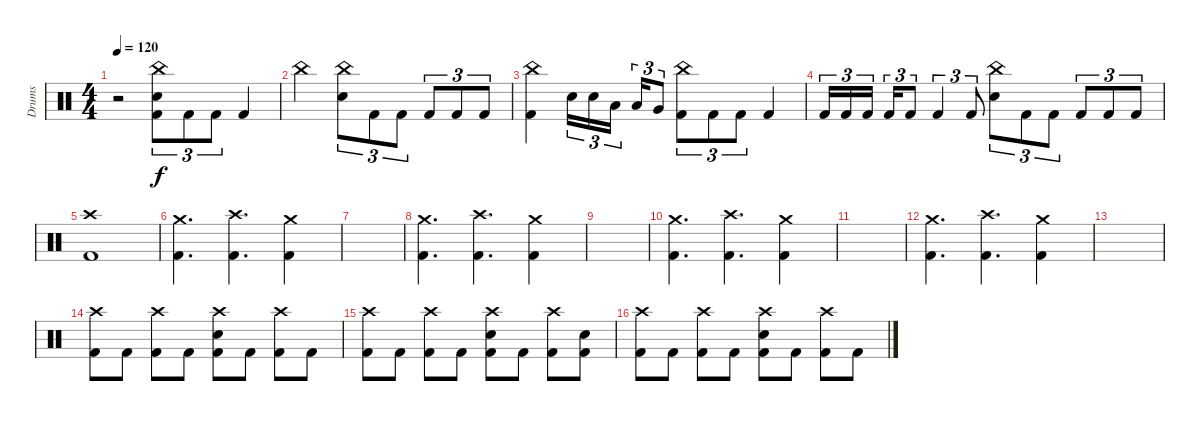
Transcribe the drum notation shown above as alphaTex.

\track ("Drums" "Drums") {instrument percussion}
\staff {score}
\articulation defaults
\ts (4 4)
\tempo 120
\clef neutral
\ks c
r.2{dy f} ("China (hit)" "Electric Snare (hit)" "Kick (hit) 2").8{tu (3 2)} "Kick (hit) 2".8{tu (3 2)} "Kick (hit) 2".8{tu (3 2)} "Kick (hit) 2".4 |
"China (hit)".2 ("China (hit)" "Electric Snare (hit)").8{tu (3 2)} "Kick (hit) 2".8{tu (3 2)} "Kick (hit) 2".8{tu (3 2)} "Kick (hit) 2".8{tu (3 2)} "Kick (hit) 2".8{tu (3 2)} "Kick (hit) 2".8{tu (3 2)} |
("China (hit)" "Kick (hit) 2").4 "Electric Snare (hit)".16{tu (3 2)} "Electric Snare (hit)".16{tu (3 2)} "Low Tom (hit)".16{tu (3 2) beam splitsecondary} "Low Tom (hit)".16{tu (3 2)} "Very Low Tom (hit)".8{tu (3 2)} ("China (hit)" "Kick (hit) 2").8{tu (3 2)} "Kick (hit) 2".8{tu (3 2)} "Kick (hit) 2".8{tu (3 2)} "Kick (hit) 2".4 |
"Kick (hit) 2".16{tu (3 2)} "Kick (hit) 2".16{tu (3 2)} "Kick (hit) 2".16{tu (3 2) beam splitsecondary} "Kick (hit) 2".16{tu (3 2)} "Kick (hit) 2".8{tu (3 2)} "Kick (hit) 2".4{tu (3 2)} "Kick (hit) 2".8{tu (3 2)} ("China (hit)" "Electric Snare (hit)").8{tu (3 2)} "Kick (hit) 2".8{tu (3 2)} "Kick (hit) 2".8{tu (3 2)} "Kick (hit) 2".8{tu (3 2)} "Kick (hit) 2".8{tu (3 2)} "Kick (hit) 2".8{tu (3 2)} |
("Crash high (hit)" "Kick (hit) 2").1 |
("Crash medium (hit)" "Kick (hit) 2").4{d} ("Crash high (hit)" "Kick (hit) 2").4{d} ("Crash medium (hit)" "Kick (hit) 2").4 |
|
("Crash medium (hit)" "Kick (hit) 2").4{d} ("Crash high (hit)" "Kick (hit) 2").4{d} ("Crash medium (hit)" "Kick (hit) 2").4 |
|
("Crash medium (hit)" "Kick (hit) 2").4{d} ("Crash high (hit)" "Kick (hit) 2").4{d} ("Crash medium (hit)" "Kick (hit) 2").4 |
|
("Crash medium (hit)" "Kick (hit) 2").4{d} ("Crash high (hit)" "Kick (hit) 2").4{d} ("Crash medium (hit)" "Kick (hit) 2").4 |
|
("Crash high (hit)" "Kick (hit) 2").8 "Kick (hit) 2".8 ("Crash high (hit)" "Kick (hit) 2").8 "Kick (hit) 2".8 ("Crash high (hit)" "Electric Snare (hit)" "Kick (hit) 2").8 "Kick (hit) 2".8 ("Crash high (hit)" "Kick (hit) 2").8 "Kick (hit) 2".8 |
("Crash high (hit)" "Kick (hit) 2").8 "Kick (hit) 2".8 ("Crash high (hit)" "Kick (hit) 2").8 "Kick (hit) 2".8 ("Crash high (hit)" "Electric Snare (hit)" "Kick (hit) 2").8 "Kick (hit) 2".8 ("Crash high (hit)" "Kick (hit) 2").8 ("Electric Snare (hit)" "Kick (hit) 2").8 |
("Crash high (hit)" "Kick (hit) 2").8 "Kick (hit) 2".8 ("Crash high (hit)" "Kick (hit) 2").8 "Kick (hit) 2".8 ("Crash high (hit)" "Electric Snare (hit)" "Kick (hit) 2").8 "Kick (hit) 2".8 ("Crash high (hit)" "Kick (hit) 2").8 "Kick (hit) 2".8
